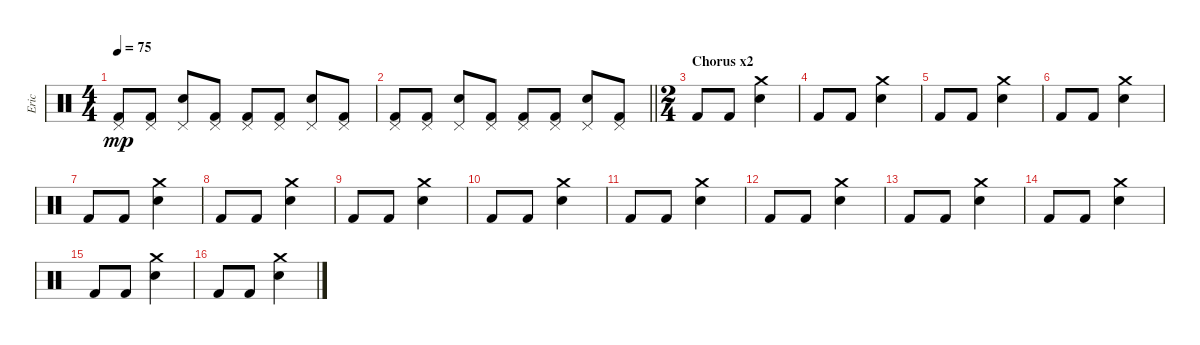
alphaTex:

\track ("Eric" "Eric") {instrument percussion}
\staff {score}
\articulation defaults
\ts (4 4)
\tempo 75
\clef neutral
\ks c
("Pedal Hi-Hat (hit)" "Kick (hit) 2").8{dy mp} ("Pedal Hi-Hat (hit)" "Kick (hit) 2").8 ("Pedal Hi-Hat (hit)" "Snare (hit) 2").8 ("Pedal Hi-Hat (hit)" "Kick (hit) 2").8 ("Pedal Hi-Hat (hit)" "Kick (hit) 2").8 ("Pedal Hi-Hat (hit)" "Kick (hit) 2").8 ("Pedal Hi-Hat (hit)" "Snare (hit) 2").8 ("Pedal Hi-Hat (hit)" "Kick (hit) 2").8 |
\barLineRight lightlight
("Pedal Hi-Hat (hit)" "Kick (hit) 2").8 ("Pedal Hi-Hat (hit)" "Kick (hit) 2").8 ("Pedal Hi-Hat (hit)" "Snare (hit) 2").8 ("Pedal Hi-Hat (hit)" "Kick (hit) 2").8 ("Pedal Hi-Hat (hit)" "Kick (hit) 2").8 ("Pedal Hi-Hat (hit)" "Kick (hit) 2").8 ("Pedal Hi-Hat (hit)" "Snare (hit) 2").8 ("Pedal Hi-Hat (hit)" "Kick (hit) 2").8 |
\ts (2 4)
\section ("" "Chorus x2")
"Kick (hit) 2".8 "Kick (hit) 2".8 ("Crash medium (hit)" "Snare (hit) 2").4 |
"Kick (hit) 2".8 "Kick (hit) 2".8 ("Crash medium (hit)" "Snare (hit) 2").4 |
"Kick (hit) 2".8 "Kick (hit) 2".8 ("Crash medium (hit)" "Snare (hit) 2").4 |
"Kick (hit) 2".8 "Kick (hit) 2".8 ("Crash medium (hit)" "Snare (hit) 2").4 |
"Kick (hit) 2".8 "Kick (hit) 2".8 ("Crash medium (hit)" "Snare (hit) 2").4 |
"Kick (hit) 2".8 "Kick (hit) 2".8 ("Crash medium (hit)" "Snare (hit) 2").4 |
"Kick (hit) 2".8 "Kick (hit) 2".8 ("Crash medium (hit)" "Snare (hit) 2").4 |
"Kick (hit) 2".8 "Kick (hit) 2".8 ("Crash medium (hit)" "Snare (hit) 2").4 |
"Kick (hit) 2".8 "Kick (hit) 2".8 ("Crash medium (hit)" "Snare (hit) 2").4 |
"Kick (hit) 2".8 "Kick (hit) 2".8 ("Crash medium (hit)" "Snare (hit) 2").4 |
"Kick (hit) 2".8 "Kick (hit) 2".8 ("Crash medium (hit)" "Snare (hit) 2").4 |
"Kick (hit) 2".8 "Kick (hit) 2".8 ("Crash medium (hit)" "Snare (hit) 2").4 |
"Kick (hit) 2".8 "Kick (hit) 2".8 ("Crash medium (hit)" "Snare (hit) 2").4 |
"Kick (hit) 2".8 "Kick (hit) 2".8 ("Crash medium (hit)" "Snare (hit) 2").4
